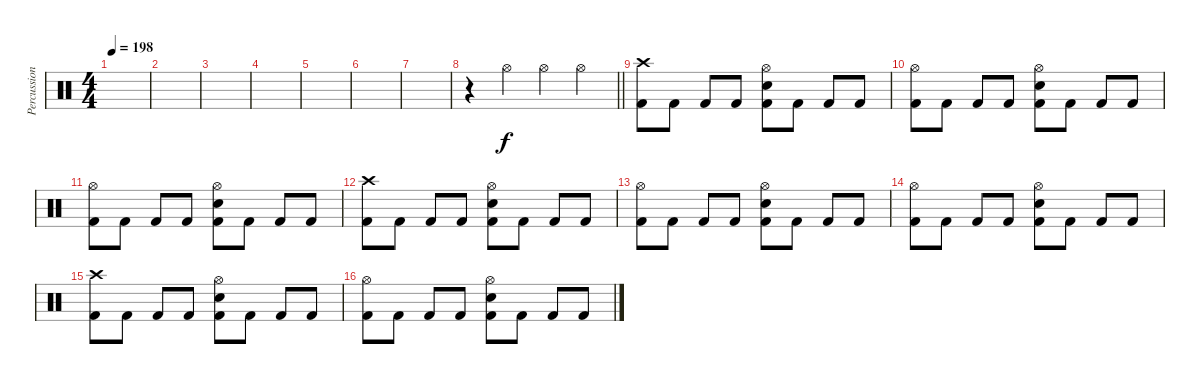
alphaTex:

\track ("Percussion" "Percussion") {instrument percussion}
\staff {score}
\articulation defaults
\ts (4 4)
\tempo 198
\clef neutral
\ks c
|
|
|
|
|
|
|
\barLineRight lightlight
r.4 "Hi-Hat (open)".4 "Hi-Hat (open)".4 "Hi-Hat (open)".4 |
("Crash high (hit)" "Kick (hit) 2").8 "Kick (hit) 2".8 "Kick (hit) 2".8 "Kick (hit) 2".8 ("Hi-Hat (open)" "Electric Snare (hit)" "Kick (hit) 2").8 "Kick (hit) 2".8 "Kick (hit) 2".8 "Kick (hit) 2".8 |
("Hi-Hat (open)" "Kick (hit) 2").8 "Kick (hit) 2".8 "Kick (hit) 2".8 "Kick (hit) 2".8 ("Hi-Hat (open)" "Electric Snare (hit)" "Kick (hit) 2").8 "Kick (hit) 2".8 "Kick (hit) 2".8 "Kick (hit) 2".8 |
("Hi-Hat (open)" "Kick (hit) 2").8 "Kick (hit) 2".8 "Kick (hit) 2".8 "Kick (hit) 2".8 ("Hi-Hat (open)" "Electric Snare (hit)" "Kick (hit) 2").8 "Kick (hit) 2".8 "Kick (hit) 2".8 "Kick (hit) 2".8 |
("Crash high (hit)" "Kick (hit) 2").8 "Kick (hit) 2".8 "Kick (hit) 2".8 "Kick (hit) 2".8 ("Hi-Hat (open)" "Electric Snare (hit)" "Kick (hit) 2").8 "Kick (hit) 2".8 "Kick (hit) 2".8 "Kick (hit) 2".8 |
("Hi-Hat (open)" "Kick (hit) 2").8 "Kick (hit) 2".8 "Kick (hit) 2".8 "Kick (hit) 2".8 ("Hi-Hat (open)" "Electric Snare (hit)" "Kick (hit) 2").8 "Kick (hit) 2".8 "Kick (hit) 2".8 "Kick (hit) 2".8 |
("Hi-Hat (open)" "Kick (hit) 2").8 "Kick (hit) 2".8 "Kick (hit) 2".8 "Kick (hit) 2".8 ("Hi-Hat (open)" "Electric Snare (hit)" "Kick (hit) 2").8 "Kick (hit) 2".8 "Kick (hit) 2".8 "Kick (hit) 2".8 |
("Crash high (hit)" "Kick (hit) 2").8 "Kick (hit) 2".8 "Kick (hit) 2".8 "Kick (hit) 2".8 ("Hi-Hat (open)" "Electric Snare (hit)" "Kick (hit) 2").8 "Kick (hit) 2".8 "Kick (hit) 2".8 "Kick (hit) 2".8 |
("Hi-Hat (open)" "Kick (hit) 2").8 "Kick (hit) 2".8 "Kick (hit) 2".8 "Kick (hit) 2".8 ("Hi-Hat (open)" "Electric Snare (hit)" "Kick (hit) 2").8 "Kick (hit) 2".8 "Kick (hit) 2".8 "Kick (hit) 2".8
